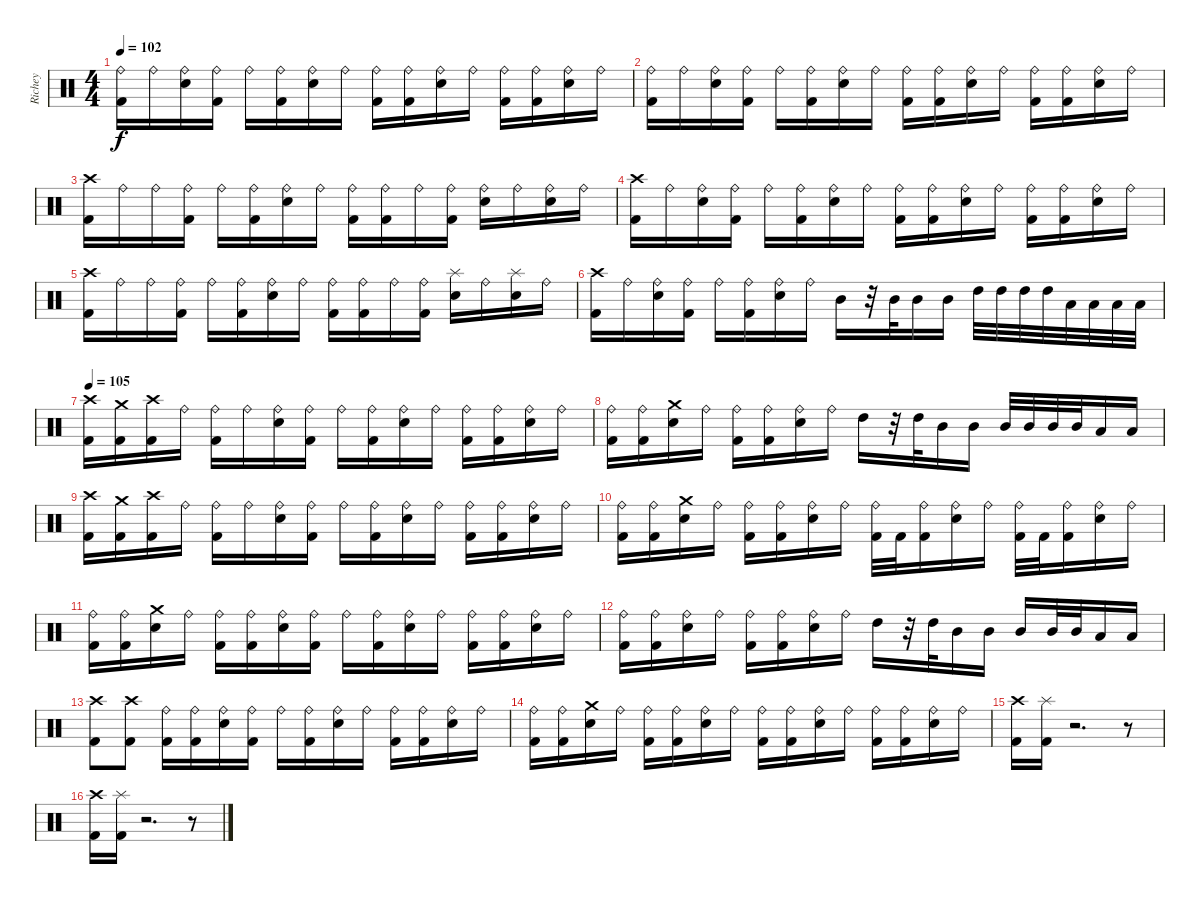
\track ("Richey" "Richey") {instrument percussion}
\staff {score}
\articulation defaults
\ts (4 4)
\tempo 102
\clef neutral
\ks c
("Ride (bell)" "Kick (hit) 2").16{dy f} "Ride (bell)".16 ("Ride (bell)" "Snare (hit) 2").16 ("Ride (bell)" "Kick (hit) 2").16 "Ride (bell)".16 ("Ride (bell)" "Kick (hit) 2").16 ("Ride (bell)" "Snare (hit) 2").16 "Ride (bell)".16 ("Ride (bell)" "Kick (hit) 2").16 ("Ride (bell)" "Kick (hit) 2").16 ("Ride (bell)" "Snare (hit) 2").16 "Ride (bell)".16 ("Ride (bell)" "Kick (hit) 2").16 ("Ride (bell)" "Kick (hit) 2").16 ("Ride (bell)" "Snare (hit) 2").16 "Ride (bell)".16 |
("Ride (bell)" "Kick (hit) 2").16 "Ride (bell)".16 ("Ride (bell)" "Snare (hit) 2").16 ("Ride (bell)" "Kick (hit) 2").16 "Ride (bell)".16 ("Ride (bell)" "Kick (hit) 2").16 ("Ride (bell)" "Snare (hit) 2").16 "Ride (bell)".16 ("Ride (bell)" "Kick (hit) 2").16 ("Ride (bell)" "Kick (hit) 2").16 ("Ride (bell)" "Snare (hit) 2").16 "Ride (bell)".16 ("Ride (bell)" "Kick (hit) 2").16 ("Ride (bell)" "Kick (hit) 2").16 ("Ride (bell)" "Snare (hit) 2").16 "Ride (bell)".16 |
("Crash high (hit)" "Kick (hit) 2").16 "Ride (bell)".16 "Ride (bell)".16 ("Ride (bell)" "Kick (hit) 2").16 "Ride (bell)".16 ("Ride (bell)" "Kick (hit) 2").16 ("Ride (bell)" "Snare (hit) 2").16 "Ride (bell)".16 ("Ride (bell)" "Kick (hit) 2").16 ("Ride (bell)" "Kick (hit) 2").16 "Ride (bell)".16 ("Ride (bell)" "Kick (hit) 2").16 ("Ride (bell)" "Snare (hit) 2").16 "Ride (bell)".16 ("Ride (bell)" "Snare (hit) 2").16 "Ride (bell)".16 |
("Crash high (hit)" "Kick (hit) 2").16 "Ride (bell)".16 ("Ride (bell)" "Snare (hit) 2").16 ("Ride (bell)" "Kick (hit) 2").16 "Ride (bell)".16 ("Ride (bell)" "Kick (hit) 2").16 ("Ride (bell)" "Snare (hit) 2").16 "Ride (bell)".16 ("Ride (bell)" "Kick (hit) 2").16 ("Ride (bell)" "Kick (hit) 2").16 ("Ride (bell)" "Snare (hit) 2").16 "Ride (bell)".16 ("Ride (bell)" "Kick (hit) 2").16 ("Ride (bell)" "Kick (hit) 2").16 ("Ride (bell)" "Snare (hit) 2").16 "Ride (bell)".16 |
("Crash high (hit)" "Kick (hit) 2").16 "Ride (bell)".16 "Ride (bell)".16 ("Ride (bell)" "Kick (hit) 2").16 "Ride (bell)".16 ("Ride (bell)" "Kick (hit) 2").16 ("Ride (bell)" "Snare (hit) 2").16 "Ride (bell)".16 ("Ride (bell)" "Kick (hit) 2").16 ("Ride (bell)" "Kick (hit) 2").16 "Ride (bell)".16 ("Ride (bell)" "Kick (hit) 2").16 ("Splash (hit)" "Snare (hit) 2").16 "Ride (bell)".16 ("Splash (hit)" "Snare (hit) 2").16 "Ride (bell)".16 |
("Crash high (hit)" "Kick (hit) 2").16 "Ride (bell)".16 ("Ride (bell)" "Snare (hit) 2").16 ("Ride (bell)" "Kick (hit) 2").16 "Ride (bell)".16 ("Ride (bell)" "Kick (hit) 2").16 ("Ride (bell)" "Snare (hit) 2").16 "Ride (bell)".16 "Mid Tom (hit)".16 r.32 "Mid Tom (hit)".32 "Mid Tom (hit)".16 "Mid Tom (hit)".16 "High Tom (hit)".32 "High Tom (hit)".32 "High Tom (hit)".32 "High Tom (hit)".32 "Low Tom (hit)".32 "Low Tom (hit)".32 "Low Tom (hit)".32 "Low Tom (hit)".32 |
\tempo 105
("Crash high (hit)" "Kick (hit) 2").16 ("Crash medium (hit)" "Kick (hit) 2").16 ("Crash high (hit)" "Kick (hit) 2").16 "Ride (bell)".16 ("Ride (bell)" "Kick (hit) 2").16 "Ride (bell)".16 ("Ride (bell)" "Snare (hit) 2").16 ("Ride (bell)" "Kick (hit) 2").16 "Ride (bell)".16 ("Ride (bell)" "Kick (hit) 2").16 ("Ride (bell)" "Snare (hit) 2").16 "Ride (bell)".16 ("Ride (bell)" "Kick (hit) 2").16 ("Ride (bell)" "Kick (hit) 2").16 ("Ride (bell)" "Snare (hit) 2").16 "Ride (bell)".16 |
("Ride (bell)" "Kick (hit) 2").16 ("Ride (bell)" "Kick (hit) 2").16 ("Crash medium (hit)" "Snare (hit) 2").16 "Ride (bell)".16 ("Ride (bell)" "Kick (hit) 2").16 ("Ride (bell)" "Kick (hit) 2").16 ("Ride (bell)" "Snare (hit) 2").16 "Ride (bell)".16 "High Tom (hit)".16 r.32 "High Tom (hit)".32 "Mid Tom (hit)".16 "Mid Tom (hit)".16 "Mid Tom (hit)".32 "Mid Tom (hit)".32 "Mid Tom (hit)".32 "Mid Tom (hit)".32 "Low Tom (hit)".16 "Low Tom (hit)".16 |
("Crash high (hit)" "Kick (hit) 2").16 ("Crash medium (hit)" "Kick (hit) 2").16 ("Crash high (hit)" "Kick (hit) 2").16 "Ride (bell)".16 ("Ride (bell)" "Kick (hit) 2").16 "Ride (bell)".16 ("Ride (bell)" "Snare (hit) 2").16 ("Ride (bell)" "Kick (hit) 2").16 "Ride (bell)".16 ("Ride (bell)" "Kick (hit) 2").16 ("Ride (bell)" "Snare (hit) 2").16 "Ride (bell)".16 ("Ride (bell)" "Kick (hit) 2").16 ("Ride (bell)" "Kick (hit) 2").16 ("Ride (bell)" "Snare (hit) 2").16 "Ride (bell)".16 |
("Ride (bell)" "Kick (hit) 2").16 ("Ride (bell)" "Kick (hit) 2").16 ("Crash medium (hit)" "Snare (hit) 2").16 "Ride (bell)".16 ("Ride (bell)" "Kick (hit) 2").16 ("Ride (bell)" "Kick (hit) 2").16 ("Ride (bell)" "Snare (hit) 2").16 "Ride (bell)".16 ("Ride (bell)" "Kick (hit) 2").32 "Kick (hit) 2".32 ("Ride (bell)" "Kick (hit) 2").16 ("Ride (bell)" "Snare (hit) 2").16 "Ride (bell)".16 ("Ride (bell)" "Kick (hit) 2").32 "Kick (hit) 2".32 ("Ride (bell)" "Kick (hit) 2").16 ("Ride (bell)" "Snare (hit) 2").16 "Ride (bell)".16 |
("Ride (bell)" "Kick (hit) 2").16 ("Ride (bell)" "Kick (hit) 2").16 ("Crash medium (hit)" "Snare (hit) 2").16 "Ride (bell)".16 ("Ride (bell)" "Kick (hit) 2").16 ("Ride (bell)" "Kick (hit) 2").16 ("Ride (bell)" "Snare (hit) 2").16 ("Ride (bell)" "Kick (hit) 2").16 "Ride (bell)".16 ("Ride (bell)" "Kick (hit) 2").16 ("Ride (bell)" "Snare (hit) 2").16 "Ride (bell)".16 ("Ride (bell)" "Kick (hit) 2").16 ("Ride (bell)" "Kick (hit) 2").16 ("Ride (bell)" "Snare (hit) 2").16 "Ride (bell)".16 |
("Ride (bell)" "Kick (hit) 2").16 ("Ride (bell)" "Kick (hit) 2").16 ("Ride (bell)" "Snare (hit) 2").16 "Ride (bell)".16 ("Ride (bell)" "Kick (hit) 2").16 ("Ride (bell)" "Kick (hit) 2").16 ("Ride (bell)" "Snare (hit) 2").16 "Ride (bell)".16 "High Tom (hit)".16 r.32 "High Tom (hit)".32 "Mid Tom (hit)".16 "Mid Tom (hit)".16 "Mid Tom (hit)".16 "Mid Tom (hit)".32 "Mid Tom (hit)".32 "Low Tom (hit)".16 "Low Tom (hit)".16 |
("Crash high (hit)" "Kick (hit) 2").8 ("Crash high (hit)" "Kick (hit) 2").8 ("Ride (bell)" "Kick (hit) 2").16 ("Ride (bell)" "Kick (hit) 2").16 ("Ride (bell)" "Snare (hit) 2").16 ("Ride (bell)" "Kick (hit) 2").16 "Ride (bell)".16 ("Ride (bell)" "Kick (hit) 2").16 ("Ride (bell)" "Snare (hit) 2").16 "Ride (bell)".16 ("Ride (bell)" "Kick (hit) 2").16 ("Ride (bell)" "Kick (hit) 2").16 ("Ride (bell)" "Snare (hit) 2").16 "Ride (bell)".16 |
("Ride (bell)" "Kick (hit) 2").16 ("Ride (bell)" "Kick (hit) 2").16 ("Crash medium (hit)" "Snare (hit) 2").16 "Ride (bell)".16 ("Ride (bell)" "Kick (hit) 2").16 ("Ride (bell)" "Kick (hit) 2").16 ("Ride (bell)" "Snare (hit) 2").16 "Ride (bell)".16 ("Ride (bell)" "Kick (hit) 2").16 ("Ride (bell)" "Kick (hit) 2").16 ("Ride (bell)" "Snare (hit) 2").16 "Ride (bell)".16 ("Ride (bell)" "Kick (hit) 2").16 ("Ride (bell)" "Kick (hit) 2").16 ("Ride (bell)" "Snare (hit) 2").16 "Ride (bell)".16 |
("Crash high (hit)" "Kick (hit) 2").16 ("Splash (hit)" "Kick (hit) 2").16 r.2{d} r.8 |
("Crash high (hit)" "Kick (hit) 2").16 ("Splash (hit)" "Kick (hit) 2").16 r.2{d} r.8
